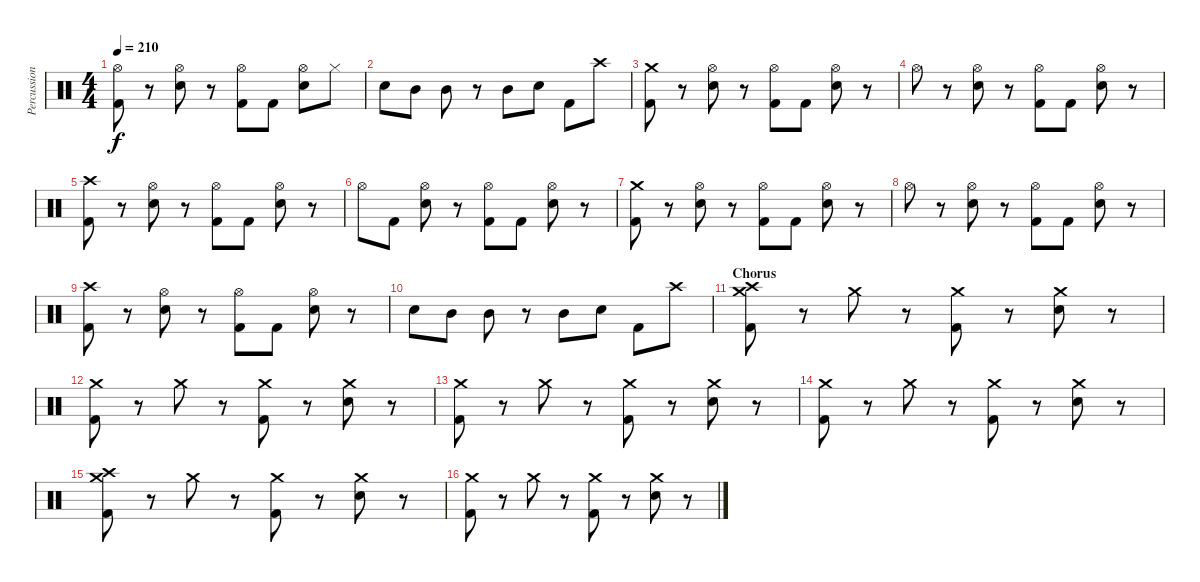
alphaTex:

\track ("Percussion" "Percussion") {instrument percussion}
\staff {score}
\articulation defaults
\ts (4 4)
\tempo 210
\clef neutral
\ks c
("Hi-Hat (open)" "Kick (hit) 2").8{dy f} r.8 ("Hi-Hat (open)" "Electric Snare (hit)").8 r.8 ("Hi-Hat (open)" "Kick (hit) 2").8 "Kick (hit) 2".8 ("Hi-Hat (open)" "Electric Snare (hit)").8 "Hi-Hat (closed)".8 |
"Electric Snare (hit)".8 "Mid Tom (hit)".8 "Mid Tom (hit)".8 r.8 "Mid Tom (hit)".8 "Electric Snare (hit)".8 "Kick (hit) 2".8 "Crash high (hit)".8 |
("Crash medium (hit)" "Kick (hit) 2").8 r.8 ("Hi-Hat (open)" "Electric Snare (hit)").8 r.8 ("Hi-Hat (open)" "Kick (hit) 2").8 "Kick (hit) 2".8 ("Hi-Hat (open)" "Electric Snare (hit)").8 r.8 |
"Hi-Hat (open)".8 r.8 ("Hi-Hat (open)" "Electric Snare (hit)").8 r.8 ("Hi-Hat (open)" "Kick (hit) 2").8 "Kick (hit) 2".8 ("Hi-Hat (open)" "Electric Snare (hit)").8 r.8 |
("Crash high (hit)" "Kick (hit) 2").8 r.8 ("Hi-Hat (open)" "Electric Snare (hit)").8 r.8 ("Hi-Hat (open)" "Kick (hit) 2").8 "Kick (hit) 2".8 ("Hi-Hat (open)" "Electric Snare (hit)").8 r.8 |
"Hi-Hat (open)".8 "Kick (hit) 2".8 ("Hi-Hat (open)" "Electric Snare (hit)").8 r.8 ("Hi-Hat (open)" "Kick (hit) 2").8 "Kick (hit) 2".8 ("Hi-Hat (open)" "Electric Snare (hit)").8 r.8 |
("Crash medium (hit)" "Kick (hit) 2").8 r.8 ("Hi-Hat (open)" "Electric Snare (hit)").8 r.8 ("Hi-Hat (open)" "Kick (hit) 2").8 "Kick (hit) 2".8 ("Hi-Hat (open)" "Electric Snare (hit)").8 r.8 |
"Hi-Hat (open)".8 r.8 ("Hi-Hat (open)" "Electric Snare (hit)").8 r.8 ("Hi-Hat (open)" "Kick (hit) 2").8 "Kick (hit) 2".8 ("Hi-Hat (open)" "Electric Snare (hit)").8 r.8 |
("Crash high (hit)" "Kick (hit) 2").8 r.8 ("Hi-Hat (open)" "Electric Snare (hit)").8 r.8 ("Hi-Hat (open)" "Kick (hit) 2").8 "Kick (hit) 2".8 ("Hi-Hat (open)" "Electric Snare (hit)").8 r.8 |
"Electric Snare (hit)".8 "Mid Tom (hit)".8 "Mid Tom (hit)".8 r.8 "Mid Tom (hit)".8 "Electric Snare (hit)".8 "Kick (hit) 2".8 "Crash high (hit)".8 |
\section ("" "Chorus")
("Crash high (hit)" "Crash medium (hit)" "Kick (hit) 2").8 r.8 "Crash medium (hit)".8 r.8 ("Crash medium (hit)" "Kick (hit) 2").8 r.8 ("Crash medium (hit)" "Electric Snare (hit)").8 r.8 |
("Crash medium (hit)" "Kick (hit) 2").8 r.8 "Crash medium (hit)".8 r.8 ("Crash medium (hit)" "Kick (hit) 2").8 r.8 ("Crash medium (hit)" "Electric Snare (hit)").8 r.8 |
("Crash medium (hit)" "Kick (hit) 2").8 r.8 "Crash medium (hit)".8 r.8 ("Crash medium (hit)" "Kick (hit) 2").8 r.8 ("Crash medium (hit)" "Electric Snare (hit)").8 r.8 |
("Crash medium (hit)" "Kick (hit) 2").8 r.8 "Crash medium (hit)".8 r.8 ("Crash medium (hit)" "Kick (hit) 2").8 r.8 ("Crash medium (hit)" "Electric Snare (hit)").8 r.8 |
("Crash high (hit)" "Crash medium (hit)" "Kick (hit) 2").8 r.8 "Crash medium (hit)".8 r.8 ("Crash medium (hit)" "Kick (hit) 2").8 r.8 ("Crash medium (hit)" "Electric Snare (hit)").8 r.8 |
("Crash medium (hit)" "Kick (hit) 2").8 r.8 "Crash medium (hit)".8 r.8 ("Crash medium (hit)" "Kick (hit) 2").8 r.8 ("Crash medium (hit)" "Electric Snare (hit)").8 r.8
